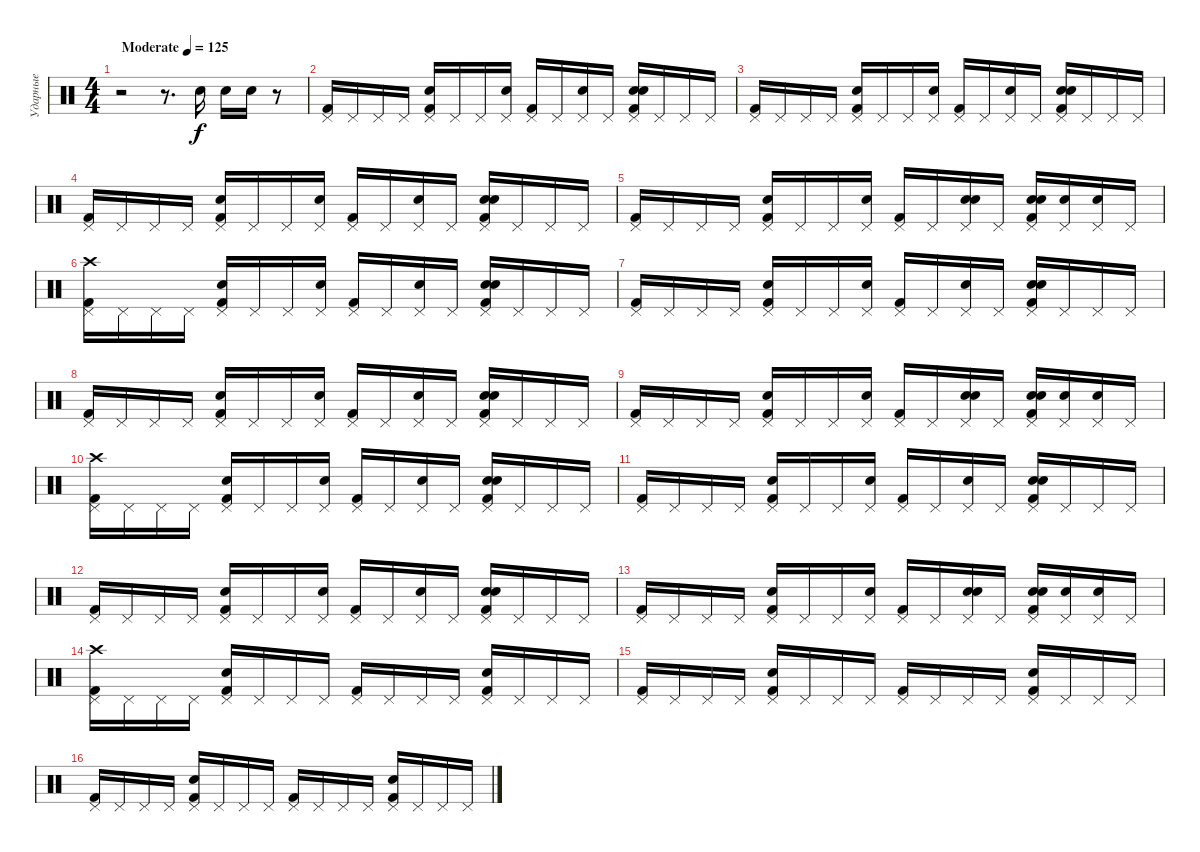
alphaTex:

\track ("Ударные" "Ударные") {instrument percussion}
\staff {score}
\articulation defaults
\ts (4 4)
\tempo (125 "Moderate")
\clef neutral
\ks c
r.2{dy f} r.8{d} "Snare (hit) 2".16 "Snare (hit) 2".16 "Snare (hit) 2".16 r.8 |
("Kick (hit) 2" "Pedal Hi-Hat (hit)").16 "Pedal Hi-Hat (hit)".16 "Pedal Hi-Hat (hit)".16 "Pedal Hi-Hat (hit)".16 ("Kick (hit) 2" "Pedal Hi-Hat (hit)" "Snare (hit) 2").16 "Pedal Hi-Hat (hit)".16 "Pedal Hi-Hat (hit)".16 ("Pedal Hi-Hat (hit)" "Hand Clap (hit)").16 ("Kick (hit) 2" "Pedal Hi-Hat (hit)").16 "Pedal Hi-Hat (hit)".16 ("Pedal Hi-Hat (hit)" "Hand Clap (hit)").16 "Pedal Hi-Hat (hit)".16 ("Kick (hit) 2" "Pedal Hi-Hat (hit)" "Snare (hit) 2" "Hand Clap (hit)").16 "Pedal Hi-Hat (hit)".16 "Pedal Hi-Hat (hit)".16 "Pedal Hi-Hat (hit)".16 |
("Kick (hit) 2" "Pedal Hi-Hat (hit)").16 "Pedal Hi-Hat (hit)".16 "Pedal Hi-Hat (hit)".16 "Pedal Hi-Hat (hit)".16 ("Kick (hit) 2" "Pedal Hi-Hat (hit)" "Snare (hit) 2").16 "Pedal Hi-Hat (hit)".16 "Pedal Hi-Hat (hit)".16 ("Pedal Hi-Hat (hit)" "Hand Clap (hit)").16 ("Kick (hit) 2" "Pedal Hi-Hat (hit)").16 "Pedal Hi-Hat (hit)".16 ("Pedal Hi-Hat (hit)" "Hand Clap (hit)").16 "Pedal Hi-Hat (hit)".16 ("Kick (hit) 2" "Pedal Hi-Hat (hit)" "Snare (hit) 2" "Hand Clap (hit)").16 "Pedal Hi-Hat (hit)".16 "Pedal Hi-Hat (hit)".16 "Pedal Hi-Hat (hit)".16 |
("Kick (hit) 2" "Pedal Hi-Hat (hit)").16 "Pedal Hi-Hat (hit)".16 "Pedal Hi-Hat (hit)".16 "Pedal Hi-Hat (hit)".16 ("Kick (hit) 2" "Pedal Hi-Hat (hit)" "Snare (hit) 2").16 "Pedal Hi-Hat (hit)".16 "Pedal Hi-Hat (hit)".16 ("Pedal Hi-Hat (hit)" "Hand Clap (hit)").16 ("Kick (hit) 2" "Pedal Hi-Hat (hit)").16 "Pedal Hi-Hat (hit)".16 ("Pedal Hi-Hat (hit)" "Hand Clap (hit)").16 "Pedal Hi-Hat (hit)".16 ("Kick (hit) 2" "Pedal Hi-Hat (hit)" "Snare (hit) 2" "Hand Clap (hit)").16 "Pedal Hi-Hat (hit)".16 "Pedal Hi-Hat (hit)".16 "Pedal Hi-Hat (hit)".16 |
("Kick (hit) 2" "Pedal Hi-Hat (hit)").16 "Pedal Hi-Hat (hit)".16 "Pedal Hi-Hat (hit)".16 "Pedal Hi-Hat (hit)".16 ("Kick (hit) 2" "Pedal Hi-Hat (hit)" "Snare (hit) 2").16 "Pedal Hi-Hat (hit)".16 "Pedal Hi-Hat (hit)".16 ("Pedal Hi-Hat (hit)" "Hand Clap (hit)").16 ("Kick (hit) 2" "Pedal Hi-Hat (hit)").16 "Pedal Hi-Hat (hit)".16 ("Pedal Hi-Hat (hit)" "Snare (hit) 2" "Hand Clap (hit)").16 "Pedal Hi-Hat (hit)".16 ("Kick (hit) 2" "Pedal Hi-Hat (hit)" "Snare (hit) 2" "Hand Clap (hit)").16 ("Pedal Hi-Hat (hit)" "Snare (hit) 2").16 ("Pedal Hi-Hat (hit)" "Snare (hit) 2").16 "Pedal Hi-Hat (hit)".16 |
("Kick (hit) 2" "Pedal Hi-Hat (hit)" "Crash high (hit)").16 "Pedal Hi-Hat (hit)".16 "Pedal Hi-Hat (hit)".16 "Pedal Hi-Hat (hit)".16 ("Kick (hit) 2" "Pedal Hi-Hat (hit)" "Snare (hit) 2").16 "Pedal Hi-Hat (hit)".16 "Pedal Hi-Hat (hit)".16 ("Pedal Hi-Hat (hit)" "Hand Clap (hit)").16 ("Kick (hit) 2" "Pedal Hi-Hat (hit)").16 "Pedal Hi-Hat (hit)".16 ("Pedal Hi-Hat (hit)" "Hand Clap (hit)").16 "Pedal Hi-Hat (hit)".16 ("Kick (hit) 2" "Pedal Hi-Hat (hit)" "Snare (hit) 2" "Hand Clap (hit)").16 "Pedal Hi-Hat (hit)".16 "Pedal Hi-Hat (hit)".16 "Pedal Hi-Hat (hit)".16 |
("Kick (hit) 2" "Pedal Hi-Hat (hit)").16 "Pedal Hi-Hat (hit)".16 "Pedal Hi-Hat (hit)".16 "Pedal Hi-Hat (hit)".16 ("Kick (hit) 2" "Pedal Hi-Hat (hit)" "Snare (hit) 2").16 "Pedal Hi-Hat (hit)".16 "Pedal Hi-Hat (hit)".16 ("Pedal Hi-Hat (hit)" "Hand Clap (hit)").16 ("Kick (hit) 2" "Pedal Hi-Hat (hit)").16 "Pedal Hi-Hat (hit)".16 ("Pedal Hi-Hat (hit)" "Hand Clap (hit)").16 "Pedal Hi-Hat (hit)".16 ("Kick (hit) 2" "Pedal Hi-Hat (hit)" "Snare (hit) 2" "Hand Clap (hit)").16 "Pedal Hi-Hat (hit)".16 "Pedal Hi-Hat (hit)".16 "Pedal Hi-Hat (hit)".16 |
("Kick (hit) 2" "Pedal Hi-Hat (hit)").16 "Pedal Hi-Hat (hit)".16 "Pedal Hi-Hat (hit)".16 "Pedal Hi-Hat (hit)".16 ("Kick (hit) 2" "Pedal Hi-Hat (hit)" "Snare (hit) 2").16 "Pedal Hi-Hat (hit)".16 "Pedal Hi-Hat (hit)".16 ("Pedal Hi-Hat (hit)" "Hand Clap (hit)").16 ("Kick (hit) 2" "Pedal Hi-Hat (hit)").16 "Pedal Hi-Hat (hit)".16 ("Pedal Hi-Hat (hit)" "Hand Clap (hit)").16 "Pedal Hi-Hat (hit)".16 ("Kick (hit) 2" "Pedal Hi-Hat (hit)" "Snare (hit) 2" "Hand Clap (hit)").16 "Pedal Hi-Hat (hit)".16 "Pedal Hi-Hat (hit)".16 "Pedal Hi-Hat (hit)".16 |
("Kick (hit) 2" "Pedal Hi-Hat (hit)").16 "Pedal Hi-Hat (hit)".16 "Pedal Hi-Hat (hit)".16 "Pedal Hi-Hat (hit)".16 ("Kick (hit) 2" "Pedal Hi-Hat (hit)" "Snare (hit) 2").16 "Pedal Hi-Hat (hit)".16 "Pedal Hi-Hat (hit)".16 ("Pedal Hi-Hat (hit)" "Hand Clap (hit)").16 ("Kick (hit) 2" "Pedal Hi-Hat (hit)").16 "Pedal Hi-Hat (hit)".16 ("Pedal Hi-Hat (hit)" "Snare (hit) 2" "Hand Clap (hit)").16 "Pedal Hi-Hat (hit)".16 ("Kick (hit) 2" "Pedal Hi-Hat (hit)" "Snare (hit) 2" "Hand Clap (hit)").16 ("Pedal Hi-Hat (hit)" "Snare (hit) 2").16 ("Pedal Hi-Hat (hit)" "Snare (hit) 2").16 "Pedal Hi-Hat (hit)".16 |
("Kick (hit) 2" "Pedal Hi-Hat (hit)" "Crash high (hit)").16 "Pedal Hi-Hat (hit)".16 "Pedal Hi-Hat (hit)".16 "Pedal Hi-Hat (hit)".16 ("Kick (hit) 2" "Pedal Hi-Hat (hit)" "Snare (hit) 2").16 "Pedal Hi-Hat (hit)".16 "Pedal Hi-Hat (hit)".16 ("Pedal Hi-Hat (hit)" "Hand Clap (hit)").16 ("Kick (hit) 2" "Pedal Hi-Hat (hit)").16 "Pedal Hi-Hat (hit)".16 ("Pedal Hi-Hat (hit)" "Hand Clap (hit)").16 "Pedal Hi-Hat (hit)".16 ("Kick (hit) 2" "Pedal Hi-Hat (hit)" "Snare (hit) 2" "Hand Clap (hit)").16 "Pedal Hi-Hat (hit)".16 "Pedal Hi-Hat (hit)".16 "Pedal Hi-Hat (hit)".16 |
("Kick (hit) 2" "Pedal Hi-Hat (hit)").16 "Pedal Hi-Hat (hit)".16 "Pedal Hi-Hat (hit)".16 "Pedal Hi-Hat (hit)".16 ("Kick (hit) 2" "Pedal Hi-Hat (hit)" "Snare (hit) 2").16 "Pedal Hi-Hat (hit)".16 "Pedal Hi-Hat (hit)".16 ("Pedal Hi-Hat (hit)" "Hand Clap (hit)").16 ("Kick (hit) 2" "Pedal Hi-Hat (hit)").16 "Pedal Hi-Hat (hit)".16 ("Pedal Hi-Hat (hit)" "Hand Clap (hit)").16 "Pedal Hi-Hat (hit)".16 ("Kick (hit) 2" "Pedal Hi-Hat (hit)" "Snare (hit) 2" "Hand Clap (hit)").16 "Pedal Hi-Hat (hit)".16 "Pedal Hi-Hat (hit)".16 "Pedal Hi-Hat (hit)".16 |
("Kick (hit) 2" "Pedal Hi-Hat (hit)").16 "Pedal Hi-Hat (hit)".16 "Pedal Hi-Hat (hit)".16 "Pedal Hi-Hat (hit)".16 ("Kick (hit) 2" "Pedal Hi-Hat (hit)" "Snare (hit) 2").16 "Pedal Hi-Hat (hit)".16 "Pedal Hi-Hat (hit)".16 ("Pedal Hi-Hat (hit)" "Hand Clap (hit)").16 ("Kick (hit) 2" "Pedal Hi-Hat (hit)").16 "Pedal Hi-Hat (hit)".16 ("Pedal Hi-Hat (hit)" "Hand Clap (hit)").16 "Pedal Hi-Hat (hit)".16 ("Kick (hit) 2" "Pedal Hi-Hat (hit)" "Snare (hit) 2" "Hand Clap (hit)").16 "Pedal Hi-Hat (hit)".16 "Pedal Hi-Hat (hit)".16 "Pedal Hi-Hat (hit)".16 |
("Kick (hit) 2" "Pedal Hi-Hat (hit)").16 "Pedal Hi-Hat (hit)".16 "Pedal Hi-Hat (hit)".16 "Pedal Hi-Hat (hit)".16 ("Kick (hit) 2" "Pedal Hi-Hat (hit)" "Snare (hit) 2").16 "Pedal Hi-Hat (hit)".16 "Pedal Hi-Hat (hit)".16 ("Pedal Hi-Hat (hit)" "Hand Clap (hit)").16 ("Kick (hit) 2" "Pedal Hi-Hat (hit)").16 "Pedal Hi-Hat (hit)".16 ("Pedal Hi-Hat (hit)" "Snare (hit) 2" "Hand Clap (hit)").16 "Pedal Hi-Hat (hit)".16 ("Kick (hit) 2" "Pedal Hi-Hat (hit)" "Snare (hit) 2" "Hand Clap (hit)").16 ("Pedal Hi-Hat (hit)" "Snare (hit) 2").16 ("Pedal Hi-Hat (hit)" "Snare (hit) 2").16 "Pedal Hi-Hat (hit)".16 |
("Kick (hit) 2" "Pedal Hi-Hat (hit)" "Crash high (hit)").16 "Pedal Hi-Hat (hit)".16 "Pedal Hi-Hat (hit)".16 "Pedal Hi-Hat (hit)".16 ("Kick (hit) 2" "Pedal Hi-Hat (hit)" "Snare (hit) 2").16 "Pedal Hi-Hat (hit)".16 "Pedal Hi-Hat (hit)".16 "Pedal Hi-Hat (hit)".16 ("Kick (hit) 2" "Pedal Hi-Hat (hit)").16 "Pedal Hi-Hat (hit)".16 "Pedal Hi-Hat (hit)".16 "Pedal Hi-Hat (hit)".16 ("Kick (hit) 2" "Pedal Hi-Hat (hit)" "Snare (hit) 2").16 "Pedal Hi-Hat (hit)".16 "Pedal Hi-Hat (hit)".16 "Pedal Hi-Hat (hit)".16 |
("Kick (hit) 2" "Pedal Hi-Hat (hit)").16 "Pedal Hi-Hat (hit)".16 "Pedal Hi-Hat (hit)".16 "Pedal Hi-Hat (hit)".16 ("Kick (hit) 2" "Pedal Hi-Hat (hit)" "Snare (hit) 2").16 "Pedal Hi-Hat (hit)".16 "Pedal Hi-Hat (hit)".16 "Pedal Hi-Hat (hit)".16 ("Kick (hit) 2" "Pedal Hi-Hat (hit)").16 "Pedal Hi-Hat (hit)".16 "Pedal Hi-Hat (hit)".16 "Pedal Hi-Hat (hit)".16 ("Kick (hit) 2" "Pedal Hi-Hat (hit)" "Snare (hit) 2").16 "Pedal Hi-Hat (hit)".16 "Pedal Hi-Hat (hit)".16 "Pedal Hi-Hat (hit)".16 |
("Kick (hit) 2" "Pedal Hi-Hat (hit)").16 "Pedal Hi-Hat (hit)".16 "Pedal Hi-Hat (hit)".16 "Pedal Hi-Hat (hit)".16 ("Kick (hit) 2" "Pedal Hi-Hat (hit)" "Snare (hit) 2").16 "Pedal Hi-Hat (hit)".16 "Pedal Hi-Hat (hit)".16 "Pedal Hi-Hat (hit)".16 ("Kick (hit) 2" "Pedal Hi-Hat (hit)").16 "Pedal Hi-Hat (hit)".16 "Pedal Hi-Hat (hit)".16 "Pedal Hi-Hat (hit)".16 ("Kick (hit) 2" "Pedal Hi-Hat (hit)" "Snare (hit) 2").16 "Pedal Hi-Hat (hit)".16 "Pedal Hi-Hat (hit)".16 "Pedal Hi-Hat (hit)".16
